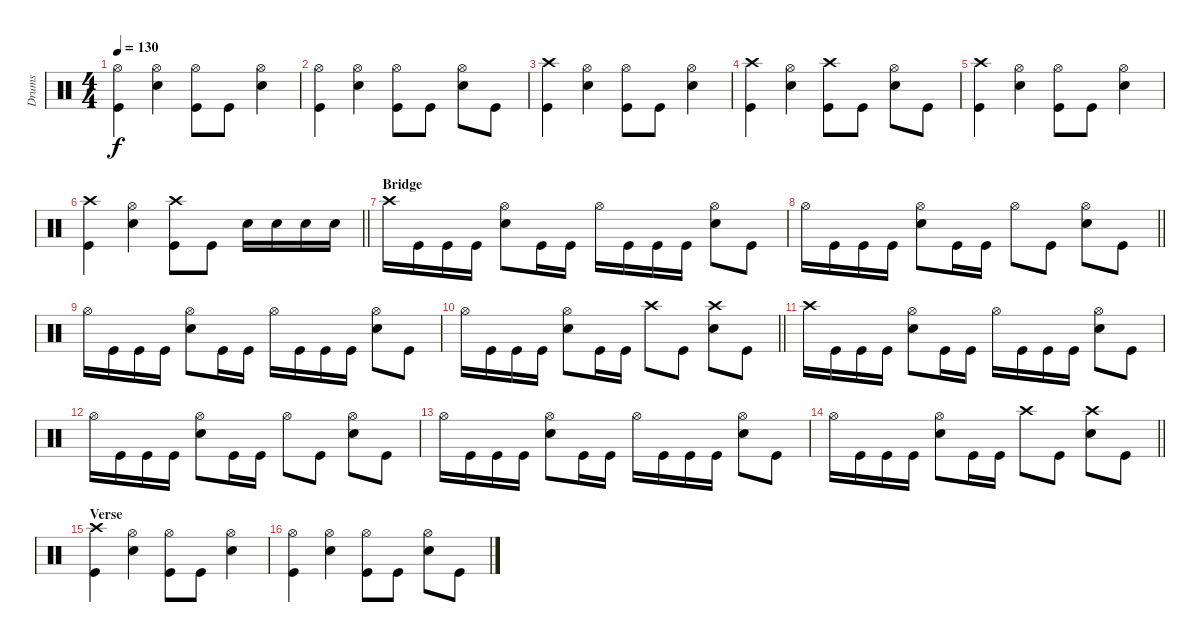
\track ("Drums" "Drums") {instrument percussion}
\staff {score}
\articulation defaults
\ts (4 4)
\tempo 130
\clef neutral
\ks c
("Hi-Hat (open)" "Kick (hit)").4{dy f} ("Hi-Hat (open)" "Electric Snare (hit)").4 ("Hi-Hat (open)" "Kick (hit)").8 "Kick (hit)".8 ("Hi-Hat (open)" "Electric Snare (hit)").4 |
("Hi-Hat (open)" "Kick (hit)").4 ("Hi-Hat (open)" "Electric Snare (hit)").4 ("Hi-Hat (open)" "Kick (hit)").8 "Kick (hit)".8 ("Hi-Hat (open)" "Electric Snare (hit)").8 "Kick (hit)".8 |
("Crash high (hit)" "Kick (hit)").4 ("Hi-Hat (open)" "Electric Snare (hit)").4 ("Hi-Hat (open)" "Kick (hit)").8 "Kick (hit)".8 ("Hi-Hat (open)" "Electric Snare (hit)").4 |
("Crash high (hit)" "Kick (hit)").4 ("Hi-Hat (open)" "Electric Snare (hit)").4 ("Crash high (hit)" "Kick (hit)").8 "Kick (hit)".8 ("Hi-Hat (open)" "Electric Snare (hit)").8 "Kick (hit)".8 |
("Crash high (hit)" "Kick (hit)").4 ("Hi-Hat (open)" "Electric Snare (hit)").4 ("Hi-Hat (open)" "Kick (hit)").8 "Kick (hit)".8 ("Hi-Hat (open)" "Electric Snare (hit)").4 |
\barLineRight lightlight
("Crash high (hit)" "Kick (hit)").4 ("Hi-Hat (open)" "Electric Snare (hit)").4 ("Crash high (hit)" "Kick (hit)").8 "Kick (hit)".8 "Electric Snare (hit)".16 "Electric Snare (hit)".16 "Electric Snare (hit)".16 "Electric Snare (hit)".16 |
\section ("" "Bridge ")
"Crash high (hit)".16 "Kick (hit)".16 "Kick (hit)".16 "Kick (hit)".16 ("Hi-Hat (open)" "Electric Snare (hit)").8 "Kick (hit)".16 "Kick (hit)".16 "Hi-Hat (open)".16 "Kick (hit)".16 "Kick (hit)".16 "Kick (hit)".16 ("Hi-Hat (open)" "Electric Snare (hit)").8 "Kick (hit)".8 |
\barLineRight lightlight "Hi-Hat (open)".16 "Kick (hit)".16 "Kick (hit)".16 "Kick (hit)".16
("Hi-Hat (open)" "Electric Snare (hit)").8 "Kick (hit)".16 "Kick (hit)".16 "Hi-Hat (open)".8 "Kick (hit)".8 ("Hi-Hat (open)" "Electric Snare (hit)").8 "Kick (hit)".8 |
"Hi-Hat (open)".16 "Kick (hit)".16 "Kick (hit)".16 "Kick (hit)".16 ("Hi-Hat (open)" "Electric Snare (hit)").8 "Kick (hit)".16 "Kick (hit)".16 "Hi-Hat (open)".16 "Kick (hit)".16 "Kick (hit)".16 "Kick (hit)".16 ("Hi-Hat (open)" "Electric Snare (hit)").8 "Kick (hit)".8 |
\barLineRight lightlight "Hi-Hat (open)".16 "Kick (hit)".16 "Kick (hit)".16 "Kick (hit)".16
("Hi-Hat (open)" "Electric Snare (hit)").8 "Kick (hit)".16 "Kick (hit)".16 "Crash high (hit)".8 "Kick (hit)".8 ("Crash high (hit)" "Electric Snare (hit)").8 "Kick (hit)".8 |
"Crash high (hit)".16 "Kick (hit)".16 "Kick (hit)".16 "Kick (hit)".16 ("Hi-Hat (open)" "Electric Snare (hit)").8 "Kick (hit)".16 "Kick (hit)".16 "Hi-Hat (open)".16 "Kick (hit)".16 "Kick (hit)".16 "Kick (hit)".16 ("Hi-Hat (open)" "Electric Snare (hit)").8 "Kick (hit)".8 |
"Hi-Hat (open)".16 "Kick (hit)".16 "Kick (hit)".16 "Kick (hit)".16 ("Hi-Hat (open)" "Electric Snare (hit)").8 "Kick (hit)".16 "Kick (hit)".16 "Hi-Hat (open)".8 "Kick (hit)".8 ("Hi-Hat (open)" "Electric Snare (hit)").8 "Kick (hit)".8 |
"Hi-Hat (open)".16 "Kick (hit)".16 "Kick (hit)".16 "Kick (hit)".16 ("Hi-Hat (open)" "Electric Snare (hit)").8 "Kick (hit)".16 "Kick (hit)".16 "Hi-Hat (open)".16 "Kick (hit)".16 "Kick (hit)".16 "Kick (hit)".16 ("Hi-Hat (open)" "Electric Snare (hit)").8 "Kick (hit)".8 |
\barLineRight lightlight "Hi-Hat (open)".16 "Kick (hit)".16 "Kick (hit)".16 "Kick (hit)".16
("Hi-Hat (open)" "Electric Snare (hit)").8 "Kick (hit)".16 "Kick (hit)".16 "Crash high (hit)".8 "Kick (hit)".8 ("Crash high (hit)" "Electric Snare (hit)").8 "Kick (hit)".8 |
\section ("" "Verse ")
("Crash high (hit)" "Kick (hit)").4 ("Hi-Hat (open)" "Electric Snare (hit)").4 ("Hi-Hat (open)" "Kick (hit)").8 "Kick (hit)".8 ("Hi-Hat (open)" "Electric Snare (hit)").4 |
("Hi-Hat (open)" "Kick (hit)").4 ("Hi-Hat (open)" "Electric Snare (hit)").4 ("Hi-Hat (open)" "Kick (hit)").8 "Kick (hit)".8 ("Hi-Hat (open)" "Electric Snare (hit)").8 "Kick (hit)".8
